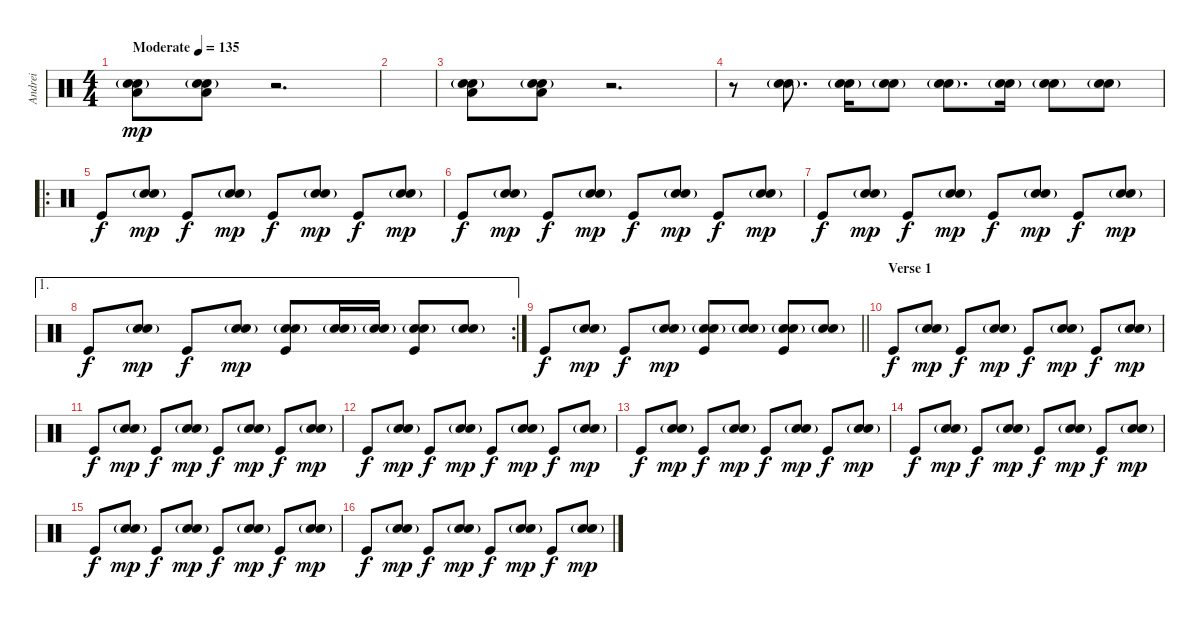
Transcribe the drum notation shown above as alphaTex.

\track ("Andrei" "Andrei") {instrument percussion}
\staff {score}
\articulation defaults
\ts (4 4)
\tempo (135 "Moderate")
\clef neutral
\ks c
("Hand Clap (hit)"{g} "Snare (hit) 2" "Low Floor Tom (hit)").8{dy mp} ("Hand Clap (hit)"{g} "Snare (hit) 2" "Low Floor Tom (hit)").8 r.2{d} |
|
("Hand Clap (hit)"{g} "Snare (hit) 2" "Low Floor Tom (hit)").8 ("Hand Clap (hit)"{g} "Snare (hit) 2" "Low Floor Tom (hit)").8 r.2{d} |
r.8 ("Hand Clap (hit)"{g} "Snare (hit) 2").8{d} ("Hand Clap (hit)"{g} "Snare (hit) 2"{g}).16 ("Hand Clap (hit)"{g} "Snare (hit) 2").8 ("Hand Clap (hit)"{g} "Snare (hit) 2").8{d} ("Hand Clap (hit)"{g} "Snare (hit) 2"{g}).16 ("Hand Clap (hit)"{g} "Snare (hit) 2").8 ("Hand Clap (hit)"{g} "Snare (hit) 2").8 |
\ro "Kick (hit)".8{dy f}
("Hand Clap (hit)"{g} "Snare (hit) 2").8{dy mp} "Kick (hit)".8{dy f} ("Hand Clap (hit)"{g} "Snare (hit) 2").8{dy mp} "Kick (hit)".8{dy f} ("Hand Clap (hit)"{g} "Snare (hit) 2").8{dy mp} "Kick (hit)".8{dy f} ("Hand Clap (hit)"{g} "Snare (hit) 2").8{dy mp} |
"Kick (hit)".8{dy f} ("Hand Clap (hit)"{g} "Snare (hit) 2").8{dy mp} "Kick (hit)".8{dy f} ("Hand Clap (hit)"{g} "Snare (hit) 2").8{dy mp} "Kick (hit)".8{dy f} ("Hand Clap (hit)"{g} "Snare (hit) 2").8{dy mp} "Kick (hit)".8{dy f} ("Hand Clap (hit)"{g} "Snare (hit) 2").8{dy mp} |
"Kick (hit)".8{dy f} ("Hand Clap (hit)"{g} "Snare (hit) 2").8{dy mp} "Kick (hit)".8{dy f} ("Hand Clap (hit)"{g} "Snare (hit) 2").8{dy mp} "Kick (hit)".8{dy f} ("Hand Clap (hit)"{g} "Snare (hit) 2").8{dy mp} "Kick (hit)".8{dy f} ("Hand Clap (hit)"{g} "Snare (hit) 2").8{dy mp} |
\ae 1
\rc 2 "Kick (hit)".8{dy f}
("Hand Clap (hit)"{g} "Snare (hit) 2").8{dy mp} "Kick (hit)".8{dy f} ("Hand Clap (hit)"{g} "Snare (hit) 2").8{dy mp} ("Hand Clap (hit)"{g} "Snare (hit) 2" "Kick (hit)").8 ("Hand Clap (hit)"{g} "Snare (hit) 2").16 ("Hand Clap (hit)"{g} "Snare (hit) 2").16 ("Hand Clap (hit)"{g} "Snare (hit) 2" "Kick (hit)").8 ("Hand Clap (hit)"{g} "Snare (hit) 2").8 |
\barLineRight lightlight "Kick (hit)".8{dy f}
("Hand Clap (hit)"{g} "Snare (hit) 2").8{dy mp} "Kick (hit)".8{dy f} ("Hand Clap (hit)"{g} "Snare (hit) 2").8{dy mp} ("Hand Clap (hit)"{g} "Snare (hit) 2" "Kick (hit)").8 ("Hand Clap (hit)"{g} "Snare (hit) 2").8 ("Hand Clap (hit)"{g} "Snare (hit) 2" "Kick (hit)").8 ("Hand Clap (hit)"{g} "Snare (hit) 2").8 |
\section ("" "Verse 1")
"Kick (hit)".8{dy f} ("Hand Clap (hit)"{g} "Snare (hit) 2").8{dy mp} "Kick (hit)".8{dy f} ("Hand Clap (hit)"{g} "Snare (hit) 2").8{dy mp} "Kick (hit)".8{dy f} ("Hand Clap (hit)"{g} "Snare (hit) 2").8{dy mp} "Kick (hit)".8{dy f} ("Hand Clap (hit)"{g} "Snare (hit) 2").8{dy mp} |
"Kick (hit)".8{dy f} ("Hand Clap (hit)"{g} "Snare (hit) 2").8{dy mp} "Kick (hit)".8{dy f} ("Hand Clap (hit)"{g} "Snare (hit) 2").8{dy mp} "Kick (hit)".8{dy f} ("Hand Clap (hit)"{g} "Snare (hit) 2").8{dy mp} "Kick (hit)".8{dy f} ("Hand Clap (hit)"{g} "Snare (hit) 2").8{dy mp} |
"Kick (hit)".8{dy f} ("Hand Clap (hit)"{g} "Snare (hit) 2").8{dy mp} "Kick (hit)".8{dy f} ("Hand Clap (hit)"{g} "Snare (hit) 2").8{dy mp} "Kick (hit)".8{dy f} ("Hand Clap (hit)"{g} "Snare (hit) 2").8{dy mp} "Kick (hit)".8{dy f} ("Hand Clap (hit)"{g} "Snare (hit) 2").8{dy mp} |
"Kick (hit)".8{dy f} ("Hand Clap (hit)"{g} "Snare (hit) 2").8{dy mp} "Kick (hit)".8{dy f} ("Hand Clap (hit)"{g} "Snare (hit) 2").8{dy mp} "Kick (hit)".8{dy f} ("Hand Clap (hit)"{g} "Snare (hit) 2").8{dy mp} "Kick (hit)".8{dy f} ("Hand Clap (hit)"{g} "Snare (hit) 2").8{dy mp} |
"Kick (hit)".8{dy f} ("Hand Clap (hit)"{g} "Snare (hit) 2").8{dy mp} "Kick (hit)".8{dy f} ("Hand Clap (hit)"{g} "Snare (hit) 2").8{dy mp} "Kick (hit)".8{dy f} ("Hand Clap (hit)"{g} "Snare (hit) 2").8{dy mp} "Kick (hit)".8{dy f} ("Hand Clap (hit)"{g} "Snare (hit) 2").8{dy mp} |
"Kick (hit)".8{dy f} ("Hand Clap (hit)"{g} "Snare (hit) 2").8{dy mp} "Kick (hit)".8{dy f} ("Hand Clap (hit)"{g} "Snare (hit) 2").8{dy mp} "Kick (hit)".8{dy f} ("Hand Clap (hit)"{g} "Snare (hit) 2").8{dy mp} "Kick (hit)".8{dy f} ("Hand Clap (hit)"{g} "Snare (hit) 2").8{dy mp} |
"Kick (hit)".8{dy f} ("Hand Clap (hit)"{g} "Snare (hit) 2").8{dy mp} "Kick (hit)".8{dy f} ("Hand Clap (hit)"{g} "Snare (hit) 2").8{dy mp} "Kick (hit)".8{dy f} ("Hand Clap (hit)"{g} "Snare (hit) 2").8{dy mp} "Kick (hit)".8{dy f} ("Hand Clap (hit)"{g} "Snare (hit) 2").8{dy mp}
